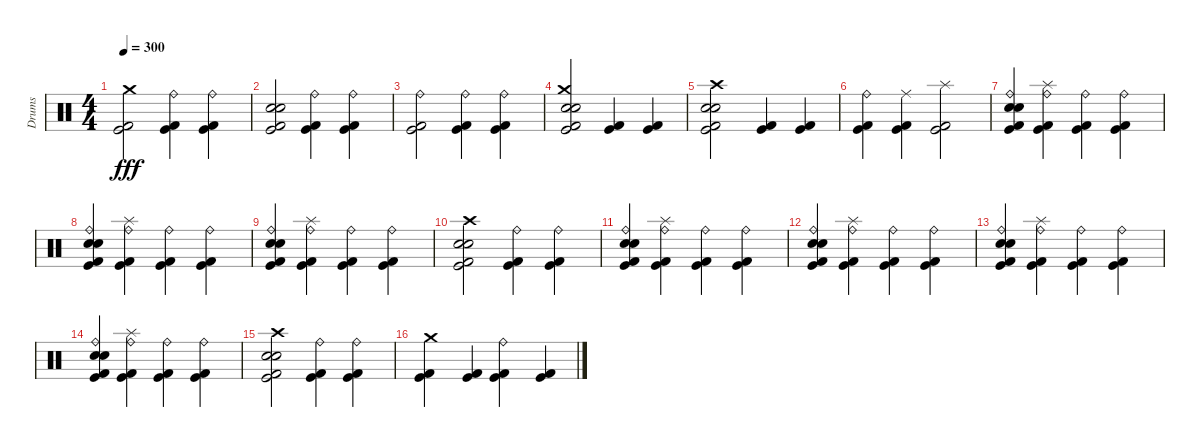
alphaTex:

\track ("Drums" "Drums") {instrument percussion}
\staff {score}
\articulation defaults
\ts (4 4)
\tempo 300
\clef neutral
\ks c
("Kick (hit) 2" "Kick (hit)" "Crash medium (hit)").2{dy fff} ("Kick (hit) 2" "Kick (hit)" "Ride (bell)").4 ("Kick (hit) 2" "Kick (hit)" "Ride (bell)").4 |
("Kick (hit) 2" "Kick (hit)" "Electric Snare (hit)" "Snare (hit) 2").2 ("Kick (hit) 2" "Kick (hit)" "Ride (bell)").4 ("Kick (hit) 2" "Kick (hit)" "Ride (bell)").4 |
("Kick (hit) 2" "Kick (hit)" "Ride (bell)").2 ("Kick (hit) 2" "Kick (hit)" "Ride (bell)").4 ("Kick (hit) 2" "Kick (hit)" "Ride (bell)").4 |
("Kick (hit) 2" "Kick (hit)" "Snare (hit) 2" "Crash medium (hit)" "Electric Snare (hit)").2 ("Kick (hit) 2" "Kick (hit)").4 ("Kick (hit) 2" "Kick (hit)").4 |
("Kick (hit) 2" "Kick (hit)" "Crash high (hit)" "Electric Snare (hit)" "Snare (hit) 2").2 ("Kick (hit) 2" "Kick (hit)").4 ("Kick (hit) 2" "Kick (hit)").4 |
("Kick (hit) 2" "Kick (hit)" "Ride (bell)").4 ("Kick (hit) 2" "Ride (middle)" "Kick (hit)").4 ("Splash (hit)" "Kick (hit) 2" "Kick (hit)").2 |
("Kick (hit) 2" "Ride (bell)" "Kick (hit)" "Snare (hit) 2" "Electric Snare (hit)").4 ("Kick (hit) 2" "Ride (bell)" "Splash (hit)" "Kick (hit)").4 ("Kick (hit) 2" "Ride (bell)" "Kick (hit)").4 ("Kick (hit) 2" "Ride (bell)" "Kick (hit)").4 |
("Kick (hit) 2" "Ride (bell)" "Snare (hit) 2" "Electric Snare (hit)" "Kick (hit)").4 ("Kick (hit) 2" "Ride (bell)" "Splash (hit)" "Kick (hit)").4 ("Kick (hit) 2" "Ride (bell)" "Kick (hit)").4 ("Kick (hit) 2" "Ride (bell)" "Kick (hit)").4 |
("Kick (hit) 2" "Ride (bell)" "Snare (hit) 2" "Electric Snare (hit)" "Kick (hit)").4 ("Kick (hit) 2" "Ride (bell)" "Splash (hit)" "Kick (hit)").4 ("Kick (hit) 2" "Ride (bell)" "Kick (hit)").4 ("Kick (hit) 2" "Ride (bell)" "Kick (hit)").4 |
("Kick (hit) 2" "Crash high (hit)" "Snare (hit) 2" "Electric Snare (hit)" "Kick (hit)").2 ("Kick (hit) 2" "Ride (bell)" "Kick (hit)").4 ("Kick (hit) 2" "Ride (bell)" "Kick (hit)").4 |
("Kick (hit) 2" "Ride (bell)" "Kick (hit)" "Electric Snare (hit)" "Snare (hit) 2").4 ("Kick (hit) 2" "Ride (bell)" "Splash (hit)" "Kick (hit)").4 ("Kick (hit) 2" "Ride (bell)" "Kick (hit)").4 ("Kick (hit) 2" "Ride (bell)" "Kick (hit)").4 |
("Kick (hit) 2" "Ride (bell)" "Kick (hit)" "Electric Snare (hit)" "Snare (hit) 2").4 ("Kick (hit) 2" "Ride (bell)" "Splash (hit)" "Kick (hit)").4 ("Kick (hit) 2" "Ride (bell)" "Kick (hit)").4 ("Kick (hit) 2" "Ride (bell)" "Kick (hit)").4 |
("Kick (hit) 2" "Ride (bell)" "Kick (hit)" "Electric Snare (hit)" "Snare (hit) 2").4 ("Kick (hit) 2" "Ride (bell)" "Splash (hit)" "Kick (hit)").4 ("Kick (hit) 2" "Ride (bell)" "Kick (hit)").4 ("Kick (hit) 2" "Ride (bell)" "Kick (hit)").4 |
("Kick (hit) 2" "Ride (bell)" "Kick (hit)" "Electric Snare (hit)" "Snare (hit) 2").4 ("Kick (hit) 2" "Ride (bell)" "Splash (hit)" "Kick (hit)").4 ("Kick (hit) 2" "Ride (bell)" "Kick (hit)").4 ("Kick (hit) 2" "Ride (bell)" "Kick (hit)").4 |
("Kick (hit) 2" "Crash high (hit)" "Kick (hit)" "Electric Snare (hit)" "Snare (hit) 2").2 ("Kick (hit) 2" "Ride (bell)" "Kick (hit)").4 ("Kick (hit) 2" "Ride (bell)" "Kick (hit)").4 |
("Crash medium (hit)" "Kick (hit) 2" "Kick (hit)").4 ("Kick (hit) 2" "Kick (hit)").4 ("Kick (hit) 2" "Ride (bell)" "Kick (hit)").4 ("Kick (hit) 2" "Kick (hit)").4
